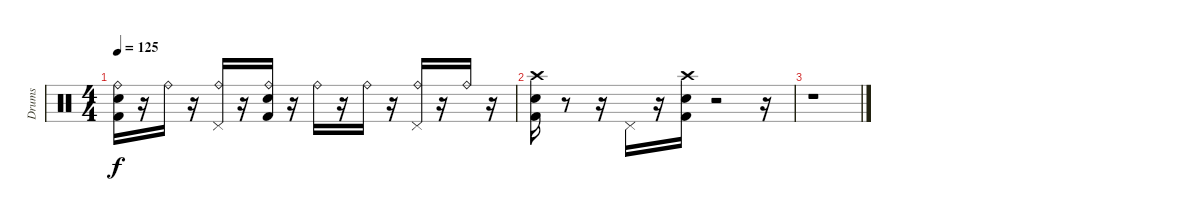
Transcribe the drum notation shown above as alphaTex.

\track ("Drums" "Drums") {instrument percussion}
\staff {score}
\articulation defaults
\ts (4 4)
\tempo 125
\clef neutral
\ks c
("Snare (hit) 2" "Ride (bell)" "Kick (hit) 2").16{dy f} r.16 "Ride (bell)".16 r.16 ("Pedal Hi-Hat (hit)" "Ride (bell)").16 r.16 ("Snare (hit) 2" "Ride (bell)" "Kick (hit) 2").16 r.16 "Ride (bell)".16 r.16 "Ride (bell)".16 r.16 ("Pedal Hi-Hat (hit)" "Ride (bell)").16 r.16 "Ride (bell)".16 r.16 |
("Snare (hit) 2" "Crash high (hit)" "Kick (hit) 2").16 r.8 r.16 "Pedal Hi-Hat (hit)".16 r.16 ("Snare (hit) 2" "Crash high (hit)" "Kick (hit) 2").16 r.2 r.16 |
r.1
